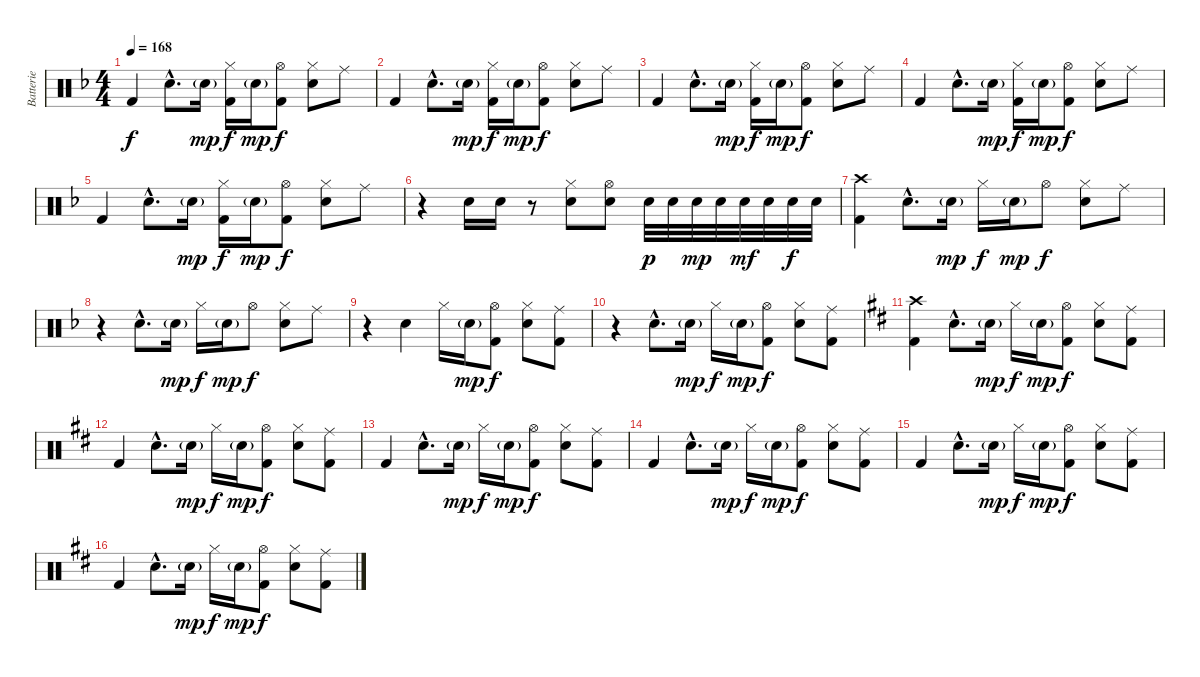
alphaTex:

\track ("Batterie" "Batterie") {instrument percussion}
\staff {score}
\articulation defaults
\ts (4 4)
\tempo 168
\clef neutral
\ks f "Kick (hit) 2".4{dy f} "Snare (hit) 2"{hac}.8{d} "Snare (hit) 2"{g}.16{dy mp}
("Hi-Hat (closed)" "Kick (hit) 2").16{dy f} "Snare (hit) 2"{g}.16{dy mp} ("Hi-Hat (open)" "Kick (hit) 2").8{dy f} ("Hi-Hat (closed)" "Snare (hit) 2").8 "Ride (middle)".8 |
"Kick (hit) 2".4 "Snare (hit) 2"{hac}.8{d} "Snare (hit) 2"{g}.16{dy mp} ("Hi-Hat (closed)" "Kick (hit) 2").16{dy f} "Snare (hit) 2"{g}.16{dy mp} ("Hi-Hat (open)" "Kick (hit) 2").8{dy f} ("Hi-Hat (closed)" "Snare (hit) 2").8 "Ride (middle)".8 |
"Kick (hit) 2".4 "Snare (hit) 2"{hac}.8{d} "Snare (hit) 2"{g}.16{dy mp} ("Hi-Hat (closed)" "Kick (hit) 2").16{dy f} "Snare (hit) 2"{g}.16{dy mp} ("Hi-Hat (open)" "Kick (hit) 2").8{dy f} ("Hi-Hat (closed)" "Snare (hit) 2").8 "Ride (middle)".8 |
"Kick (hit) 2".4 "Snare (hit) 2"{hac}.8{d} "Snare (hit) 2"{g}.16{dy mp} ("Hi-Hat (closed)" "Kick (hit) 2").16{dy f} "Snare (hit) 2"{g}.16{dy mp} ("Hi-Hat (open)" "Kick (hit) 2").8{dy f} ("Hi-Hat (closed)" "Snare (hit) 2").8 "Ride (middle)".8 |
"Kick (hit) 2".4 "Snare (hit) 2"{hac}.8{d} "Snare (hit) 2"{g}.16{dy mp} ("Hi-Hat (closed)" "Kick (hit) 2").16{dy f} "Snare (hit) 2"{g}.16{dy mp} ("Hi-Hat (open)" "Kick (hit) 2").8{dy f} ("Hi-Hat (closed)" "Snare (hit) 2").8 "Ride (middle)".8 |
r.4 "Snare (hit) 2".16 "Snare (hit) 2".16 r.8 ("Hi-Hat (closed)" "Snare (hit) 2").8 ("Hi-Hat (open)" "Snare (hit) 2").8 "Snare (hit) 2".32{dy p} "Snare (hit) 2".32 "Snare (hit) 2".32{dy mp} "Snare (hit) 2".32 "Snare (hit) 2".32{dy mf} "Snare (hit) 2".32 "Snare (hit) 2".32{dy f} "Snare (hit) 2".32 |
("Crash high (hit)" "Kick (hit) 2").4 "Snare (hit) 2"{hac}.8{d} "Snare (hit) 2"{g}.16{dy mp} "Hi-Hat (closed)".16{dy f} "Snare (hit) 2"{g}.16{dy mp} "Hi-Hat (open)".8{dy f} ("Hi-Hat (closed)" "Snare (hit) 2").8 "Ride (middle)".8 |
r.4 "Snare (hit) 2"{hac}.8{d} "Snare (hit) 2"{g}.16{dy mp} "Hi-Hat (closed)".16{dy f} "Snare (hit) 2"{g}.16{dy mp} "Hi-Hat (open)".8{dy f} ("Hi-Hat (closed)" "Snare (hit) 2").8 "Ride (middle)".8 |
r.4 "Snare (hit) 2".4 "Hi-Hat (closed)".16 "Snare (hit) 2"{g}.16{dy mp} ("Hi-Hat (open)" "Kick (hit) 2").8{dy f} ("Hi-Hat (closed)" "Snare (hit) 2").8 ("Ride (middle)" "Kick (hit) 2").8 |
r.4 "Snare (hit) 2"{hac}.8{d} "Snare (hit) 2"{g}.16{dy mp} "Hi-Hat (closed)".16{dy f} "Snare (hit) 2"{g}.16{dy mp} ("Hi-Hat (open)" "Kick (hit) 2").8{dy f} ("Hi-Hat (closed)" "Snare (hit) 2").8 ("Ride (middle)" "Kick (hit) 2").8 |
\ks d
("Crash high (hit)" "Kick (hit) 2").4 "Snare (hit) 2"{hac}.8{d} "Snare (hit) 2"{g}.16{dy mp} "Hi-Hat (closed)".16{dy f} "Snare (hit) 2"{g}.16{dy mp} ("Hi-Hat (open)" "Kick (hit) 2").8{dy f} ("Hi-Hat (closed)" "Snare (hit) 2").8 ("Ride (middle)" "Kick (hit) 2").8 |
"Kick (hit) 2".4 "Snare (hit) 2"{hac}.8{d} "Snare (hit) 2"{g}.16{dy mp} "Hi-Hat (closed)".16{dy f} "Snare (hit) 2"{g}.16{dy mp} ("Hi-Hat (open)" "Kick (hit) 2").8{dy f} ("Hi-Hat (closed)" "Snare (hit) 2").8 ("Ride (middle)" "Kick (hit) 2").8 |
"Kick (hit) 2".4 "Snare (hit) 2"{hac}.8{d} "Snare (hit) 2"{g}.16{dy mp} "Hi-Hat (closed)".16{dy f} "Snare (hit) 2"{g}.16{dy mp} ("Hi-Hat (open)" "Kick (hit) 2").8{dy f} ("Hi-Hat (closed)" "Snare (hit) 2").8 ("Ride (middle)" "Kick (hit) 2").8 |
"Kick (hit) 2".4 "Snare (hit) 2"{hac}.8{d} "Snare (hit) 2"{g}.16{dy mp} "Hi-Hat (closed)".16{dy f} "Snare (hit) 2"{g}.16{dy mp} ("Hi-Hat (open)" "Kick (hit) 2").8{dy f} ("Hi-Hat (closed)" "Snare (hit) 2").8 ("Ride (middle)" "Kick (hit) 2").8 |
"Kick (hit) 2".4 "Snare (hit) 2"{hac}.8{d} "Snare (hit) 2"{g}.16{dy mp} "Hi-Hat (closed)".16{dy f} "Snare (hit) 2"{g}.16{dy mp} ("Hi-Hat (open)" "Kick (hit) 2").8{dy f} ("Hi-Hat (closed)" "Snare (hit) 2").8 ("Ride (middle)" "Kick (hit) 2").8 |
"Kick (hit) 2".4 "Snare (hit) 2"{hac}.8{d} "Snare (hit) 2"{g}.16{dy mp} "Hi-Hat (closed)".16{dy f} "Snare (hit) 2"{g}.16{dy mp} ("Hi-Hat (open)" "Kick (hit) 2").8{dy f} ("Hi-Hat (closed)" "Snare (hit) 2").8 ("Ride (middle)" "Kick (hit) 2").8
